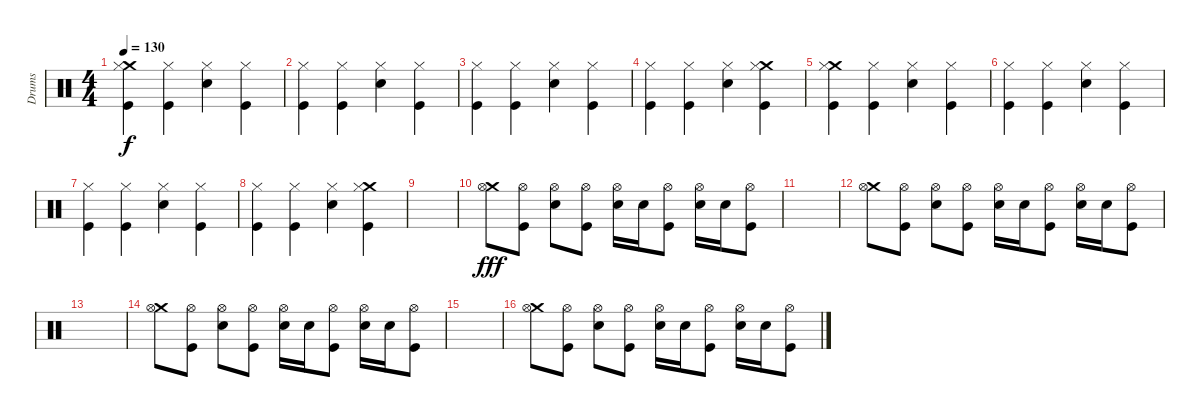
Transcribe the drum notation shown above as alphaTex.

\track ("Drums" "Drums") {instrument percussion}
\staff {score}
\articulation defaults
\ts (4 4)
\tempo 130
\clef neutral
\ks c
("Kick (hit)" "Crash medium (hit)" "Hi-Hat (closed)").4{dy f} ("Kick (hit)" "Hi-Hat (closed)").4 ("Snare (hit) 2" "Hi-Hat (closed)").4 ("Kick (hit)" "Hi-Hat (closed)").4 |
("Kick (hit)" "Hi-Hat (closed)").4 ("Kick (hit)" "Hi-Hat (closed)").4 ("Snare (hit) 2" "Hi-Hat (closed)").4 ("Kick (hit)" "Hi-Hat (closed)").4 |
("Kick (hit)" "Hi-Hat (closed)").4 ("Kick (hit)" "Hi-Hat (closed)").4 ("Snare (hit) 2" "Hi-Hat (closed)").4 ("Kick (hit)" "Hi-Hat (closed)").4 |
("Kick (hit)" "Hi-Hat (closed)").4 ("Kick (hit)" "Hi-Hat (closed)").4 ("Snare (hit) 2" "Hi-Hat (closed)").4 ("Kick (hit)" "Crash medium (hit)" "Hi-Hat (closed)").4 |
("Kick (hit)" "Crash medium (hit)" "Hi-Hat (closed)").4 ("Kick (hit)" "Hi-Hat (closed)").4 ("Snare (hit) 2" "Hi-Hat (closed)").4 ("Kick (hit)" "Hi-Hat (closed)").4 |
("Kick (hit)" "Hi-Hat (closed)").4 ("Kick (hit)" "Hi-Hat (closed)").4 ("Snare (hit) 2" "Hi-Hat (closed)").4 ("Kick (hit)" "Hi-Hat (closed)").4 |
("Kick (hit)" "Hi-Hat (closed)").4 ("Kick (hit)" "Hi-Hat (closed)").4 ("Snare (hit) 2" "Hi-Hat (closed)").4 ("Kick (hit)" "Hi-Hat (closed)").4 |
("Kick (hit)" "Hi-Hat (closed)").4 ("Kick (hit)" "Hi-Hat (closed)").4 ("Snare (hit) 2" "Hi-Hat (closed)").4 ("Kick (hit)" "Crash medium (hit)" "Hi-Hat (closed)").4 |
|
("Crash medium (hit)" "Hi-Hat (open)").8{dy fff} ("Kick (hit)" "Hi-Hat (open)").8 ("Snare (hit) 2" "Hi-Hat (open)").8 ("Kick (hit)" "Hi-Hat (open)").8 ("Snare (hit) 2" "Hi-Hat (open)").16 "Snare (hit) 2".16 ("Kick (hit)" "Hi-Hat (open)").8 ("Snare (hit) 2" "Hi-Hat (open)").16 "Snare (hit) 2".16 ("Kick (hit)" "Hi-Hat (open)").8 |
|
("Crash medium (hit)" "Hi-Hat (open)").8 ("Kick (hit)" "Hi-Hat (open)").8 ("Snare (hit) 2" "Hi-Hat (open)").8 ("Kick (hit)" "Hi-Hat (open)").8 ("Snare (hit) 2" "Hi-Hat (open)").16 "Snare (hit) 2".16 ("Kick (hit)" "Hi-Hat (open)").8 ("Snare (hit) 2" "Hi-Hat (open)").16 "Snare (hit) 2".16 ("Kick (hit)" "Hi-Hat (open)").8 |
|
("Crash medium (hit)" "Hi-Hat (open)").8 ("Kick (hit)" "Hi-Hat (open)").8 ("Snare (hit) 2" "Hi-Hat (open)").8 ("Kick (hit)" "Hi-Hat (open)").8 ("Snare (hit) 2" "Hi-Hat (open)").16 "Snare (hit) 2".16 ("Kick (hit)" "Hi-Hat (open)").8 ("Snare (hit) 2" "Hi-Hat (open)").16 "Snare (hit) 2".16 ("Kick (hit)" "Hi-Hat (open)").8 |
|
("Crash medium (hit)" "Hi-Hat (open)").8 ("Kick (hit)" "Hi-Hat (open)").8 ("Snare (hit) 2" "Hi-Hat (open)").8 ("Kick (hit)" "Hi-Hat (open)").8 ("Snare (hit) 2" "Hi-Hat (open)").16 "Snare (hit) 2".16 ("Kick (hit)" "Hi-Hat (open)").8 ("Snare (hit) 2" "Hi-Hat (open)").16 "Snare (hit) 2".16 ("Kick (hit)" "Hi-Hat (open)").8
